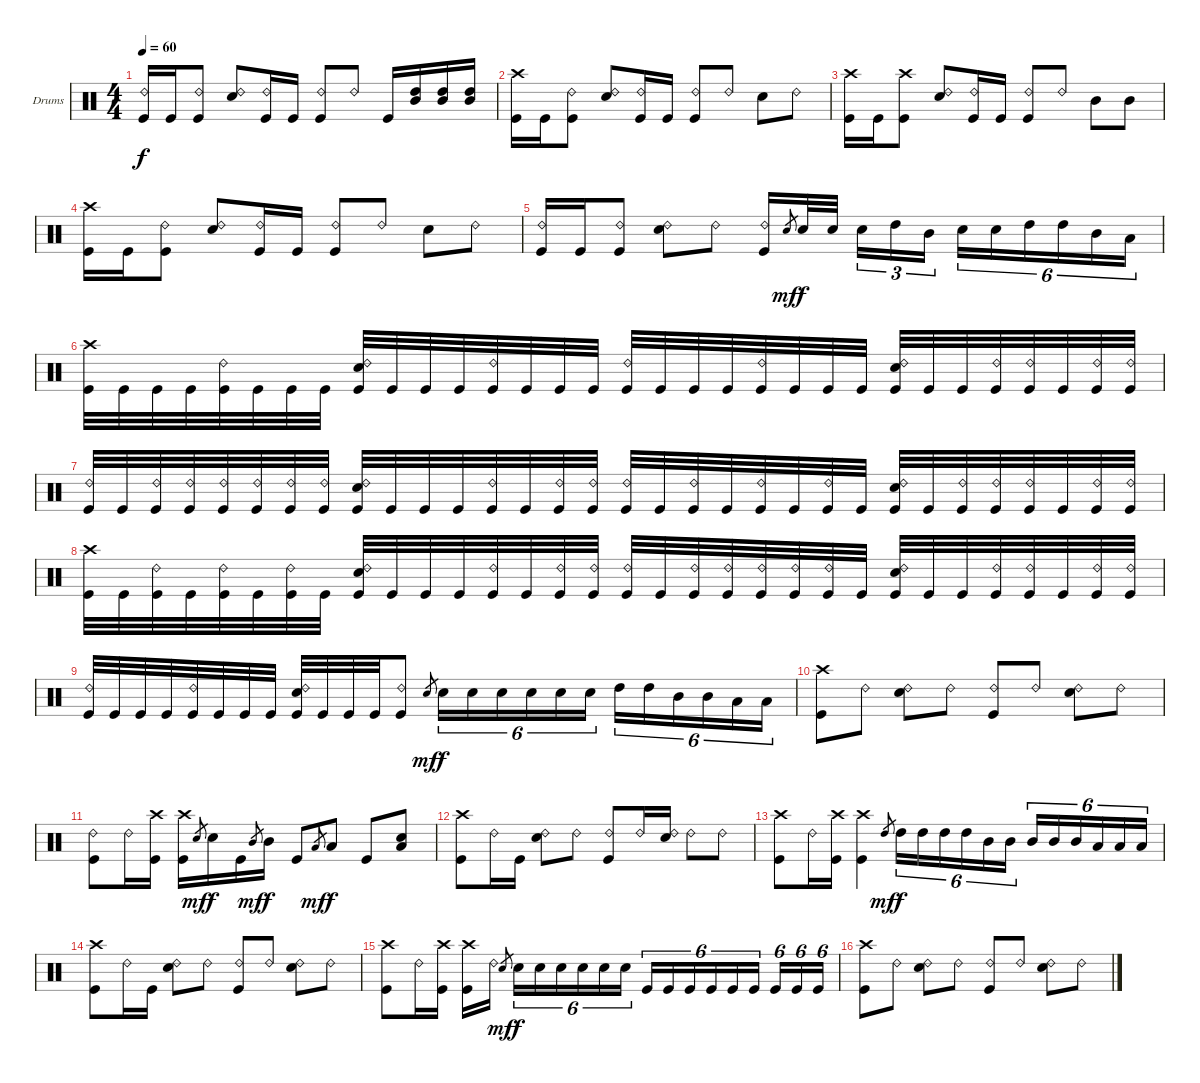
\bracketExtendMode groupsimilarinstruments
\firstSystemTrackNameOrientation horizontal
\otherSystemsTrackNameOrientation horizontal
\track ("Drumkit" "Drums") {instrument percussion}
\staff {score}
\articulation defaults
\ts (4 4)
\tempo 60
\clef neutral
\ks c
("Ride (bell) 2" "Kick (hit)").16{dy f} "Kick (hit)".16 ("Ride (bell) 2" "Kick (hit)").8 ("Ride (bell) 2" "Snare (hit) 2").8 ("Ride (bell) 2" "Kick (hit)").16 "Kick (hit)".16 ("Ride (bell) 2" "Kick (hit)").8 "Ride (bell) 2".8 "Kick (hit)".16 ("High Tom (hit)" "Mid Tom (hit)").16 ("High Tom (hit)" "Mid Tom (hit)").16 ("High Tom (hit)" "Mid Tom (hit)").16 |
("Crash high (hit)" "Kick (hit)").16 "Kick (hit)".16 ("Ride (bell) 2" "Kick (hit)").8 ("Ride (bell) 2" "Snare (hit) 2").8 ("Ride (bell) 2" "Kick (hit)").16 "Kick (hit)".16 ("Ride (bell) 2" "Kick (hit)").8 "Ride (bell) 2".8 "Snare (hit) 2".8 "Ride (bell) 2".8 |
("Crash high (hit)" "Kick (hit)").16 "Kick (hit)".16 ("Crash high (hit)" "Kick (hit)").8 ("Ride (bell) 2" "Snare (hit) 2").8 ("Ride (bell) 2" "Kick (hit)").16 "Kick (hit)".16 ("Ride (bell) 2" "Kick (hit)").8 "Ride (bell) 2".8 "Mid Tom (hit)".8 "Mid Tom (hit)".8 |
("Crash high (hit)" "Kick (hit)").16 "Kick (hit)".16 ("Ride (bell) 2" "Kick (hit)").8 ("Ride (bell) 2" "Snare (hit) 2").8 ("Ride (bell) 2" "Kick (hit)").16 "Kick (hit)".16 ("Ride (bell) 2" "Kick (hit)").8 "Ride (bell) 2".8 "Snare (hit) 2".8 "Ride (bell) 2".8 |
("Ride (bell) 2" "Kick (hit)").16 "Kick (hit)".16 ("Ride (bell) 2" "Kick (hit)").8 ("Ride (bell) 2" "Snare (hit) 2").8 "Ride (bell) 2".8 ("Ride (bell) 2" "Kick (hit)").16 "Snare (hit) 2".8{gr dy mf} "Snare (hit) 2".32{dy f} "Snare (hit) 2".32 "Snare (hit) 2".16{tu (3 2)} "High Tom (hit)".16{tu (3 2)} "Mid Tom (hit)".16{tu (3 2)} "Snare (hit) 2".16{tu (6 4)} "Snare (hit) 2".16{tu (6 4)} "High Tom (hit)".16{tu (6 4)} "High Tom (hit)".16{tu (6 4)} "Mid Tom (hit)".16{tu (6 4)} "Low Tom (hit)".16{tu (6 4)} |
("Crash high (hit)" "Kick (hit)").32 "Kick (hit)".32 "Kick (hit)".32 "Kick (hit)".32 ("Ride (bell) 2" "Kick (hit)").32 "Kick (hit)".32 "Kick (hit)".32 "Kick (hit)".32 ("Ride (bell) 2" "Snare (hit) 2" "Kick (hit)").32 "Kick (hit)".32 "Kick (hit)".32 "Kick (hit)".32 ("Ride (bell) 2" "Kick (hit)").32 "Kick (hit)".32 "Kick (hit)".32 "Kick (hit)".32 ("Ride (bell) 2" "Kick (hit)").32 "Kick (hit)".32 "Kick (hit)".32 "Kick (hit)".32 ("Ride (bell) 2" "Kick (hit)").32 "Kick (hit)".32 "Kick (hit)".32 "Kick (hit)".32 ("Ride (bell) 2" "Snare (hit) 2" "Kick (hit)").32 "Kick (hit)".32 "Kick (hit)".32 ("Ride (bell) 2" "Kick (hit)").32 ("Ride (bell) 2" "Kick (hit)").32 "Kick (hit)".32 ("Ride (bell) 2" "Kick (hit)").32 ("Ride (bell) 2" "Kick (hit)").32 |
("Ride (bell) 2" "Kick (hit)").32 "Kick (hit)".32 ("Ride (bell) 2" "Kick (hit)").32 ("Ride (bell) 2" "Kick (hit)").32 ("Ride (bell) 2" "Kick (hit)").32 ("Ride (bell) 2" "Kick (hit)").32 ("Ride (bell) 2" "Kick (hit)").32 ("Ride (bell) 2" "Kick (hit)").32 ("Ride (bell) 2" "Snare (hit) 2" "Kick (hit)").32 "Kick (hit)".32 "Kick (hit)".32 "Kick (hit)".32 ("Ride (bell) 2" "Kick (hit)").32 "Kick (hit)".32 ("Ride (bell) 2" "Kick (hit)").32 ("Ride (bell) 2" "Kick (hit)").32 ("Ride (bell) 2" "Kick (hit)").32 "Kick (hit)".32 ("Ride (bell) 2" "Kick (hit)").32 "Kick (hit)".32 ("Ride (bell) 2" "Kick (hit)").32 "Kick (hit)".32 ("Ride (bell) 2" "Kick (hit)").32 "Kick (hit)".32 ("Ride (bell) 2" "Snare (hit) 2" "Kick (hit)").32 "Kick (hit)".32 ("Ride (bell) 2" "Kick (hit)").32 ("Ride (bell) 2" "Kick (hit)").32 ("Ride (bell) 2" "Kick (hit)").32 "Kick (hit)".32 ("Ride (bell) 2" "Kick (hit)").32 ("Ride (bell) 2" "Kick (hit)").32 |
("Crash high (hit)" "Kick (hit)").32 "Kick (hit)".32 ("Ride (bell) 2" "Kick (hit)").32 "Kick (hit)".32 ("Ride (bell) 2" "Kick (hit)").32 "Kick (hit)".32 ("Ride (bell) 2" "Kick (hit)").32 "Kick (hit)".32 ("Ride (bell) 2" "Snare (hit) 2" "Kick (hit)").32 "Kick (hit)".32 "Kick (hit)".32 "Kick (hit)".32 ("Ride (bell) 2" "Kick (hit)").32 "Kick (hit)".32 ("Ride (bell) 2" "Kick (hit)").32 ("Ride (bell) 2" "Kick (hit)").32 ("Ride (bell) 2" "Kick (hit)").32 "Kick (hit)".32 ("Ride (bell) 2" "Kick (hit)").32 ("Ride (bell) 2" "Kick (hit)").32 ("Ride (bell) 2" "Kick (hit)").32 ("Ride (bell) 2" "Kick (hit)").32 ("Ride (bell) 2" "Kick (hit)").32 "Kick (hit)".32 ("Ride (bell) 2" "Snare (hit) 2" "Kick (hit)").32 "Kick (hit)".32 "Kick (hit)".32 ("Ride (bell) 2" "Kick (hit)").32 ("Ride (bell) 2" "Kick (hit)").32 "Kick (hit)".32 ("Ride (bell) 2" "Kick (hit)").32 ("Ride (bell) 2" "Kick (hit)").32 |
("Ride (bell) 2" "Kick (hit)").32 "Kick (hit)".32 "Kick (hit)".32 "Kick (hit)".32 ("Ride (bell) 2" "Kick (hit)").32 "Kick (hit)".32 "Kick (hit)".32 "Kick (hit)".32 ("Ride (bell) 2" "Snare (hit) 2" "Kick (hit)").32 "Kick (hit)".32 "Kick (hit)".32 "Kick (hit)".32 ("Ride (bell) 2" "Kick (hit)").8 "Snare (hit) 2".8{gr dy mf} "Snare (hit) 2".16{tu (6 4) dy f} "Snare (hit) 2".16{tu (6 4)} "Snare (hit) 2".16{tu (6 4)} "Snare (hit) 2".16{tu (6 4)} "Snare (hit) 2".16{tu (6 4)} "Snare (hit) 2".16{tu (6 4)} "High Tom (hit)".16{tu (6 4)} "High Tom (hit)".16{tu (6 4)} "Mid Tom (hit)".16{tu (6 4)} "Mid Tom (hit)".16{tu (6 4)} "Low Tom (hit)".16{tu (6 4)} "Low Tom (hit)".16{tu (6 4)} |
("Crash high (hit)" "Kick (hit)").8 "Ride (bell) 2".8 ("Ride (bell) 2" "Snare (hit) 2").8 "Ride (bell) 2".8 ("Ride (bell) 2" "Kick (hit)").8 "Ride (bell) 2".8 ("Ride (bell) 2" "Snare (hit) 2").8 "Ride (bell) 2".8 |
("Ride (bell) 2" "Kick (hit)").8 "Ride (bell) 2".16 ("Crash high (hit)" "Kick (hit)").16 ("Crash high (hit)" "Kick (hit)").16 "Snare (hit) 2".8{gr dy mf} "Snare (hit) 2".16{dy f} "Kick (hit)".16 "Mid Tom (hit)".8{gr dy mf} "Mid Tom (hit)".16{dy f} "Kick (hit)".8 "Low Tom (hit)".8{gr dy mf} "Low Tom (hit)".8{dy f} "Kick (hit)".8 ("Low Tom (hit)" "Snare (hit) 2").8 |
("Crash high (hit)" "Kick (hit)").8 "Ride (bell) 2".16 "Kick (hit)".16 ("Ride (bell) 2" "Snare (hit) 2").8 "Ride (bell) 2".8 ("Ride (bell) 2" "Kick (hit)").8 "Ride (bell) 2".16 ("Ride (bell) 2" "Snare (hit) 2").16 "Ride (bell) 2".8 "Ride (bell) 2".8 |
("Crash high (hit)" "Kick (hit)").8 "Ride (bell) 2".16 ("Crash high (hit)" "Kick (hit)").16 ("Crash high (hit)" "Kick (hit)").4 "High Tom (hit)".8{gr dy mf} "High Tom (hit)".16{tu (6 4) dy f} "High Tom (hit)".16{tu (6 4)} "High Tom (hit)".16{tu (6 4)} "High Tom (hit)".16{tu (6 4)} "Mid Tom (hit)".16{tu (6 4)} "Mid Tom (hit)".16{tu (6 4)} "Mid Tom (hit)".16{tu (6 4)} "Mid Tom (hit)".16{tu (6 4)} "Mid Tom (hit)".16{tu (6 4)} "Low Tom (hit)".16{tu (6 4)} "Low Tom (hit)".16{tu (6 4)} "Low Tom (hit)".16{tu (6 4)} |
("Crash high (hit)" "Kick (hit)").8 "Ride (bell) 2".16 "Kick (hit)".16 ("Ride (bell) 2" "Snare (hit) 2").8 "Ride (bell) 2".8 ("Ride (bell) 2" "Kick (hit)").8 "Ride (bell) 2".8 ("Ride (bell) 2" "Snare (hit) 2").8 "Ride (bell) 2".8 |
("Crash high (hit)" "Kick (hit)").8 "Ride (bell) 2".16 ("Crash high (hit)" "Kick (hit)").16 ("Crash high (hit)" "Kick (hit)").16 "Ride (bell) 2".16 "Snare (hit) 2".8{gr dy mf} "Snare (hit) 2".16{tu (6 4) dy f} "Snare (hit) 2".16{tu (6 4)} "Snare (hit) 2".16{tu (6 4)} "Snare (hit) 2".16{tu (6 4)} "Snare (hit) 2".16{tu (6 4)} "Snare (hit) 2".16{tu (6 4)} "Kick (hit)".16{tu (6 4)} "Kick (hit)".16{tu (6 4)} "Kick (hit)".16{tu (6 4)} "Kick (hit)".16{tu (6 4)} "Kick (hit)".16{tu (6 4)} "Kick (hit)".16{tu (6 4)} "Kick (hit)".16{tu (6 4)} "Kick (hit)".16{tu (6 4)} "Kick (hit)".16{tu (6 4)} |
("Crash high (hit)" "Kick (hit)").8 "Ride (bell) 2".8 ("Ride (bell) 2" "Snare (hit) 2").8 "Ride (bell) 2".8 ("Ride (bell) 2" "Kick (hit)").8 "Ride (bell) 2".8 ("Ride (bell) 2" "Snare (hit) 2").8 "Ride (bell) 2".8
